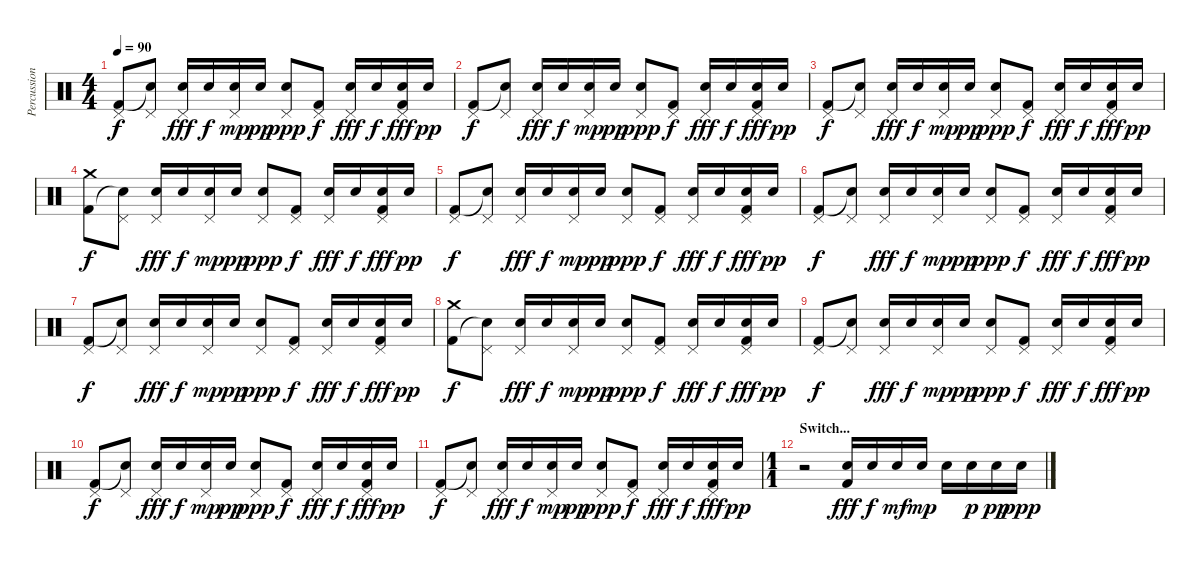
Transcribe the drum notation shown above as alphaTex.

\track ("Percussion" "Percussion") {instrument percussion}
\staff {score}
\articulation defaults
\ts (4 4)
\tempo 90
\clef neutral
\ks c
("Pedal Hi-Hat (hit)" "Kick (hit) 2").8{dy f} ("Pedal Hi-Hat (hit)" "Snare (hit)"{t}).8 ("Pedal Hi-Hat (hit)" "Electric Snare (hit)").16{dy fff} "Electric Snare (hit)".16{dy f} ("Pedal Hi-Hat (hit)" "Electric Snare (hit)").16{dy mp} "Electric Snare (hit)".16{dy pp} ("Pedal Hi-Hat (hit)" "Electric Snare (hit)").8{dy ppp} ("Pedal Hi-Hat (hit)" "Kick (hit) 2").8{dy f} ("Pedal Hi-Hat (hit)" "Electric Snare (hit)").16{dy fff} "Electric Snare (hit)".16{dy f} ("Pedal Hi-Hat (hit)" "Electric Snare (hit)" "Kick (hit) 2").16{dy fff} "Electric Snare (hit)".16{dy pp} |
("Pedal Hi-Hat (hit)" "Kick (hit) 2").8{dy f} ("Pedal Hi-Hat (hit)" "Snare (hit)"{t}).8 ("Pedal Hi-Hat (hit)" "Electric Snare (hit)").16{dy fff} "Electric Snare (hit)".16{dy f} ("Pedal Hi-Hat (hit)" "Electric Snare (hit)").16{dy mp} "Electric Snare (hit)".16{dy pp} ("Pedal Hi-Hat (hit)" "Electric Snare (hit)").8{dy ppp} ("Pedal Hi-Hat (hit)" "Kick (hit) 2").8{dy f} ("Pedal Hi-Hat (hit)" "Electric Snare (hit)").16{dy fff} "Electric Snare (hit)".16{dy f} ("Pedal Hi-Hat (hit)" "Electric Snare (hit)" "Kick (hit) 2").16{dy fff} "Electric Snare (hit)".16{dy pp} |
("Pedal Hi-Hat (hit)" "Kick (hit) 2").8{dy f} ("Pedal Hi-Hat (hit)" "Snare (hit)"{t}).8 ("Pedal Hi-Hat (hit)" "Electric Snare (hit)").16{dy fff} "Electric Snare (hit)".16{dy f} ("Pedal Hi-Hat (hit)" "Electric Snare (hit)").16{dy mp} "Electric Snare (hit)".16{dy pp} ("Pedal Hi-Hat (hit)" "Electric Snare (hit)").8{dy ppp} ("Pedal Hi-Hat (hit)" "Kick (hit) 2").8{dy f} ("Pedal Hi-Hat (hit)" "Electric Snare (hit)").16{dy fff} "Electric Snare (hit)".16{dy f} ("Pedal Hi-Hat (hit)" "Electric Snare (hit)" "Kick (hit) 2").16{dy fff} "Electric Snare (hit)".16{dy pp} |
("Crash medium (hit)" "Kick (hit) 2").8{dy f} ("Pedal Hi-Hat (hit)" "Snare (hit)"{t}).8 ("Pedal Hi-Hat (hit)" "Electric Snare (hit)").16{dy fff} "Electric Snare (hit)".16{dy f} ("Pedal Hi-Hat (hit)" "Electric Snare (hit)").16{dy mp} "Electric Snare (hit)".16{dy pp} ("Pedal Hi-Hat (hit)" "Electric Snare (hit)").8{dy ppp} ("Pedal Hi-Hat (hit)" "Kick (hit) 2").8{dy f} ("Pedal Hi-Hat (hit)" "Electric Snare (hit)").16{dy fff} "Electric Snare (hit)".16{dy f} ("Pedal Hi-Hat (hit)" "Electric Snare (hit)" "Kick (hit) 2").16{dy fff} "Electric Snare (hit)".16{dy pp} |
("Pedal Hi-Hat (hit)" "Kick (hit) 2").8{dy f} ("Pedal Hi-Hat (hit)" "Snare (hit)"{t}).8 ("Pedal Hi-Hat (hit)" "Electric Snare (hit)").16{dy fff} "Electric Snare (hit)".16{dy f} ("Pedal Hi-Hat (hit)" "Electric Snare (hit)").16{dy mp} "Electric Snare (hit)".16{dy pp} ("Pedal Hi-Hat (hit)" "Electric Snare (hit)").8{dy ppp} ("Pedal Hi-Hat (hit)" "Kick (hit) 2").8{dy f} ("Pedal Hi-Hat (hit)" "Electric Snare (hit)").16{dy fff} "Electric Snare (hit)".16{dy f} ("Pedal Hi-Hat (hit)" "Electric Snare (hit)" "Kick (hit) 2").16{dy fff} "Electric Snare (hit)".16{dy pp} |
("Pedal Hi-Hat (hit)" "Kick (hit) 2").8{dy f} ("Pedal Hi-Hat (hit)" "Snare (hit)"{t}).8 ("Pedal Hi-Hat (hit)" "Electric Snare (hit)").16{dy fff} "Electric Snare (hit)".16{dy f} ("Pedal Hi-Hat (hit)" "Electric Snare (hit)").16{dy mp} "Electric Snare (hit)".16{dy pp} ("Pedal Hi-Hat (hit)" "Electric Snare (hit)").8{dy ppp} ("Pedal Hi-Hat (hit)" "Kick (hit) 2").8{dy f} ("Pedal Hi-Hat (hit)" "Electric Snare (hit)").16{dy fff} "Electric Snare (hit)".16{dy f} ("Pedal Hi-Hat (hit)" "Electric Snare (hit)" "Kick (hit) 2").16{dy fff} "Electric Snare (hit)".16{dy pp} |
("Pedal Hi-Hat (hit)" "Kick (hit) 2").8{dy f} ("Pedal Hi-Hat (hit)" "Snare (hit)"{t}).8 ("Pedal Hi-Hat (hit)" "Electric Snare (hit)").16{dy fff} "Electric Snare (hit)".16{dy f} ("Pedal Hi-Hat (hit)" "Electric Snare (hit)").16{dy mp} "Electric Snare (hit)".16{dy pp} ("Pedal Hi-Hat (hit)" "Electric Snare (hit)").8{dy ppp} ("Pedal Hi-Hat (hit)" "Kick (hit) 2").8{dy f} ("Pedal Hi-Hat (hit)" "Electric Snare (hit)").16{dy fff} "Electric Snare (hit)".16{dy f} ("Pedal Hi-Hat (hit)" "Electric Snare (hit)" "Kick (hit) 2").16{dy fff} "Electric Snare (hit)".16{dy pp} |
("Crash medium (hit)" "Kick (hit) 2").8{dy f} ("Pedal Hi-Hat (hit)" "Snare (hit)"{t}).8 ("Pedal Hi-Hat (hit)" "Electric Snare (hit)").16{dy fff} "Electric Snare (hit)".16{dy f} ("Pedal Hi-Hat (hit)" "Electric Snare (hit)").16{dy mp} "Electric Snare (hit)".16{dy pp} ("Pedal Hi-Hat (hit)" "Electric Snare (hit)").8{dy ppp} ("Pedal Hi-Hat (hit)" "Kick (hit) 2").8{dy f} ("Pedal Hi-Hat (hit)" "Electric Snare (hit)").16{dy fff} "Electric Snare (hit)".16{dy f} ("Pedal Hi-Hat (hit)" "Electric Snare (hit)" "Kick (hit) 2").16{dy fff} "Electric Snare (hit)".16{dy pp} |
("Pedal Hi-Hat (hit)" "Kick (hit) 2").8{dy f} ("Pedal Hi-Hat (hit)" "Snare (hit)"{t}).8 ("Pedal Hi-Hat (hit)" "Electric Snare (hit)").16{dy fff} "Electric Snare (hit)".16{dy f} ("Pedal Hi-Hat (hit)" "Electric Snare (hit)").16{dy mp} "Electric Snare (hit)".16{dy pp} ("Pedal Hi-Hat (hit)" "Electric Snare (hit)").8{dy ppp} ("Pedal Hi-Hat (hit)" "Kick (hit) 2").8{dy f} ("Pedal Hi-Hat (hit)" "Electric Snare (hit)").16{dy fff} "Electric Snare (hit)".16{dy f} ("Pedal Hi-Hat (hit)" "Electric Snare (hit)" "Kick (hit) 2").16{dy fff} "Electric Snare (hit)".16{dy pp} |
("Pedal Hi-Hat (hit)" "Kick (hit) 2").8{dy f} ("Pedal Hi-Hat (hit)" "Snare (hit)"{t}).8 ("Pedal Hi-Hat (hit)" "Electric Snare (hit)").16{dy fff} "Electric Snare (hit)".16{dy f} ("Pedal Hi-Hat (hit)" "Electric Snare (hit)").16{dy mp} "Electric Snare (hit)".16{dy pp} ("Pedal Hi-Hat (hit)" "Electric Snare (hit)").8{dy ppp} ("Pedal Hi-Hat (hit)" "Kick (hit) 2").8{dy f} ("Pedal Hi-Hat (hit)" "Electric Snare (hit)").16{dy fff} "Electric Snare (hit)".16{dy f} ("Pedal Hi-Hat (hit)" "Electric Snare (hit)" "Kick (hit) 2").16{dy fff} "Electric Snare (hit)".16{dy pp} |
("Pedal Hi-Hat (hit)" "Kick (hit) 2").8{dy f} ("Pedal Hi-Hat (hit)" "Snare (hit)"{t}).8 ("Pedal Hi-Hat (hit)" "Electric Snare (hit)").16{dy fff} "Electric Snare (hit)".16{dy f} ("Pedal Hi-Hat (hit)" "Electric Snare (hit)").16{dy mp} "Electric Snare (hit)".16{dy pp} ("Pedal Hi-Hat (hit)" "Electric Snare (hit)").8{dy ppp} ("Pedal Hi-Hat (hit)" "Kick (hit) 2").8{dy f} ("Pedal Hi-Hat (hit)" "Electric Snare (hit)").16{dy fff} "Electric Snare (hit)".16{dy f} ("Pedal Hi-Hat (hit)" "Electric Snare (hit)" "Kick (hit) 2").16{dy fff} "Electric Snare (hit)".16{dy pp} |
\ts (1 1)
\section ("" "Switch...")
r.2 ("Electric Snare (hit)" "Kick (hit) 2").16{dy fff} "Electric Snare (hit)".16{dy f} "Electric Snare (hit)".16{dy mf} "Electric Snare (hit)".16{dy mp} "Electric Snare (hit)".16 "Electric Snare (hit)".16{dy p} "Electric Snare (hit)".16{dy pp} "Electric Snare (hit)".16{dy ppp}
